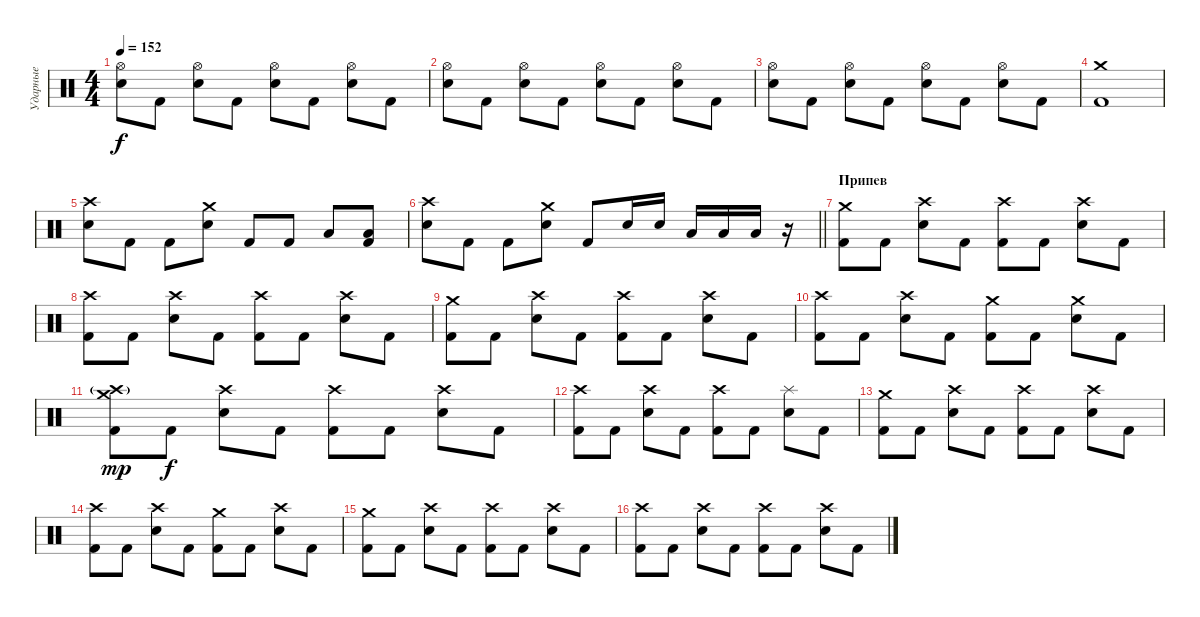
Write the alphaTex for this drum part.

\track ("Ударные" "Ударные") {instrument percussion}
\staff {score}
\articulation defaults
\ts (4 4)
\tempo 152
\clef neutral
\ks c
("Hi-Hat (open)" "Snare (hit) 2").8{dy f} "Kick (hit) 2".8 ("Hi-Hat (open)" "Snare (hit) 2").8 "Kick (hit) 2".8 ("Hi-Hat (open)" "Snare (hit) 2").8 "Kick (hit) 2".8 ("Hi-Hat (open)" "Snare (hit) 2").8 "Kick (hit) 2".8 |
("Hi-Hat (open)" "Snare (hit) 2").8 "Kick (hit) 2".8 ("Hi-Hat (open)" "Snare (hit) 2").8 "Kick (hit) 2".8 ("Hi-Hat (open)" "Snare (hit) 2").8 "Kick (hit) 2".8 ("Hi-Hat (open)" "Snare (hit) 2").8 "Kick (hit) 2".8 |
("Hi-Hat (open)" "Snare (hit) 2").8 "Kick (hit) 2".8 ("Hi-Hat (open)" "Snare (hit) 2").8 "Kick (hit) 2".8 ("Hi-Hat (open)" "Snare (hit) 2").8 "Kick (hit) 2".8 ("Hi-Hat (open)" "Snare (hit) 2").8 "Kick (hit) 2".8 |
("Crash medium (hit)" "Kick (hit) 2").1 |
("Crash high (hit)" "Snare (hit) 2").8 "Kick (hit) 2".8 "Kick (hit) 2".8 ("Crash medium (hit)" "Snare (hit) 2").8 "Kick (hit) 2".8 "Kick (hit) 2".8 "Low Floor Tom (hit)".8 ("Low Tom (hit)" "Kick (hit) 2").8 |
\barLineRight lightlight
("Crash high (hit)" "Snare (hit) 2").8 "Kick (hit) 2".8 "Kick (hit) 2".8 ("Crash medium (hit)" "Snare (hit) 2").8 "Kick (hit) 2".8 "Snare (hit) 2".16 "Snare (hit) 2".16 "Low Tom (hit)".16 "Low Tom (hit)".16 "Low Floor Tom (hit)".16 r.16 |
\section ("" "Припев")
("Crash medium (hit)" "Kick (hit) 2").8 "Kick (hit) 2".8 ("Crash high (hit)" "Snare (hit) 2").8 "Kick (hit) 2".8 ("Crash high (hit)" "Kick (hit) 2").8 "Kick (hit) 2".8 ("Crash high (hit)" "Snare (hit) 2").8 "Kick (hit) 2".8 |
("Crash high (hit)" "Kick (hit) 2").8 "Kick (hit) 2".8 ("Crash high (hit)" "Snare (hit) 2").8 "Kick (hit) 2".8 ("Crash high (hit)" "Kick (hit) 2").8 "Kick (hit) 2".8 ("Crash high (hit)" "Snare (hit) 2").8 "Kick (hit) 2".8 |
("Crash medium (hit)" "Kick (hit) 2").8 "Kick (hit) 2".8 ("Crash high (hit)" "Snare (hit) 2").8 "Kick (hit) 2".8 ("Crash high (hit)" "Kick (hit) 2").8 "Kick (hit) 2".8 ("Crash high (hit)" "Snare (hit) 2").8 "Kick (hit) 2".8 |
("Crash high (hit)" "Kick (hit) 2").8 "Kick (hit) 2".8 ("Crash high (hit)" "Snare (hit) 2").8 "Kick (hit) 2".8 ("Crash medium (hit)" "Kick (hit) 2").8 "Kick (hit) 2".8 ("Crash medium (hit)" "Snare (hit) 2").8 "Kick (hit) 2".8 |
("Crash medium (hit)" "Crash high (hit)"{g} "Kick (hit) 2").8{dy mp} "Kick (hit) 2".8{dy f} ("Crash high (hit)" "Snare (hit) 2").8 "Kick (hit) 2".8 ("Crash high (hit)" "Kick (hit) 2").8 "Kick (hit) 2".8 ("Crash high (hit)" "Snare (hit) 2").8 "Kick (hit) 2".8 |
("Crash high (hit)" "Kick (hit) 2").8 "Kick (hit) 2".8 ("Crash high (hit)" "Snare (hit) 2").8 "Kick (hit) 2".8 ("Crash high (hit)" "Kick (hit) 2").8 "Kick (hit) 2".8 ("Splash (hit)" "Snare (hit) 2").8 "Kick (hit) 2".8 |
("Crash medium (hit)" "Kick (hit) 2").8 "Kick (hit) 2".8 ("Crash high (hit)" "Snare (hit) 2").8 "Kick (hit) 2".8 ("Crash high (hit)" "Kick (hit) 2").8 "Kick (hit) 2".8 ("Crash high (hit)" "Snare (hit) 2").8 "Kick (hit) 2".8 |
("Crash high (hit)" "Kick (hit) 2").8 "Kick (hit) 2".8 ("Crash high (hit)" "Snare (hit) 2").8 "Kick (hit) 2".8 ("Crash medium (hit)" "Kick (hit) 2").8 "Kick (hit) 2".8 ("Crash high (hit)" "Snare (hit) 2").8 "Kick (hit) 2".8 |
("Crash medium (hit)" "Kick (hit) 2").8 "Kick (hit) 2".8 ("Crash high (hit)" "Snare (hit) 2").8 "Kick (hit) 2".8 ("Crash high (hit)" "Kick (hit) 2").8 "Kick (hit) 2".8 ("Crash high (hit)" "Snare (hit) 2").8 "Kick (hit) 2".8 |
("Crash high (hit)" "Kick (hit) 2").8 "Kick (hit) 2".8 ("Crash high (hit)" "Snare (hit) 2").8 "Kick (hit) 2".8 ("Crash high (hit)" "Kick (hit) 2").8 "Kick (hit) 2".8 ("Crash high (hit)" "Snare (hit) 2").8 "Kick (hit) 2".8
